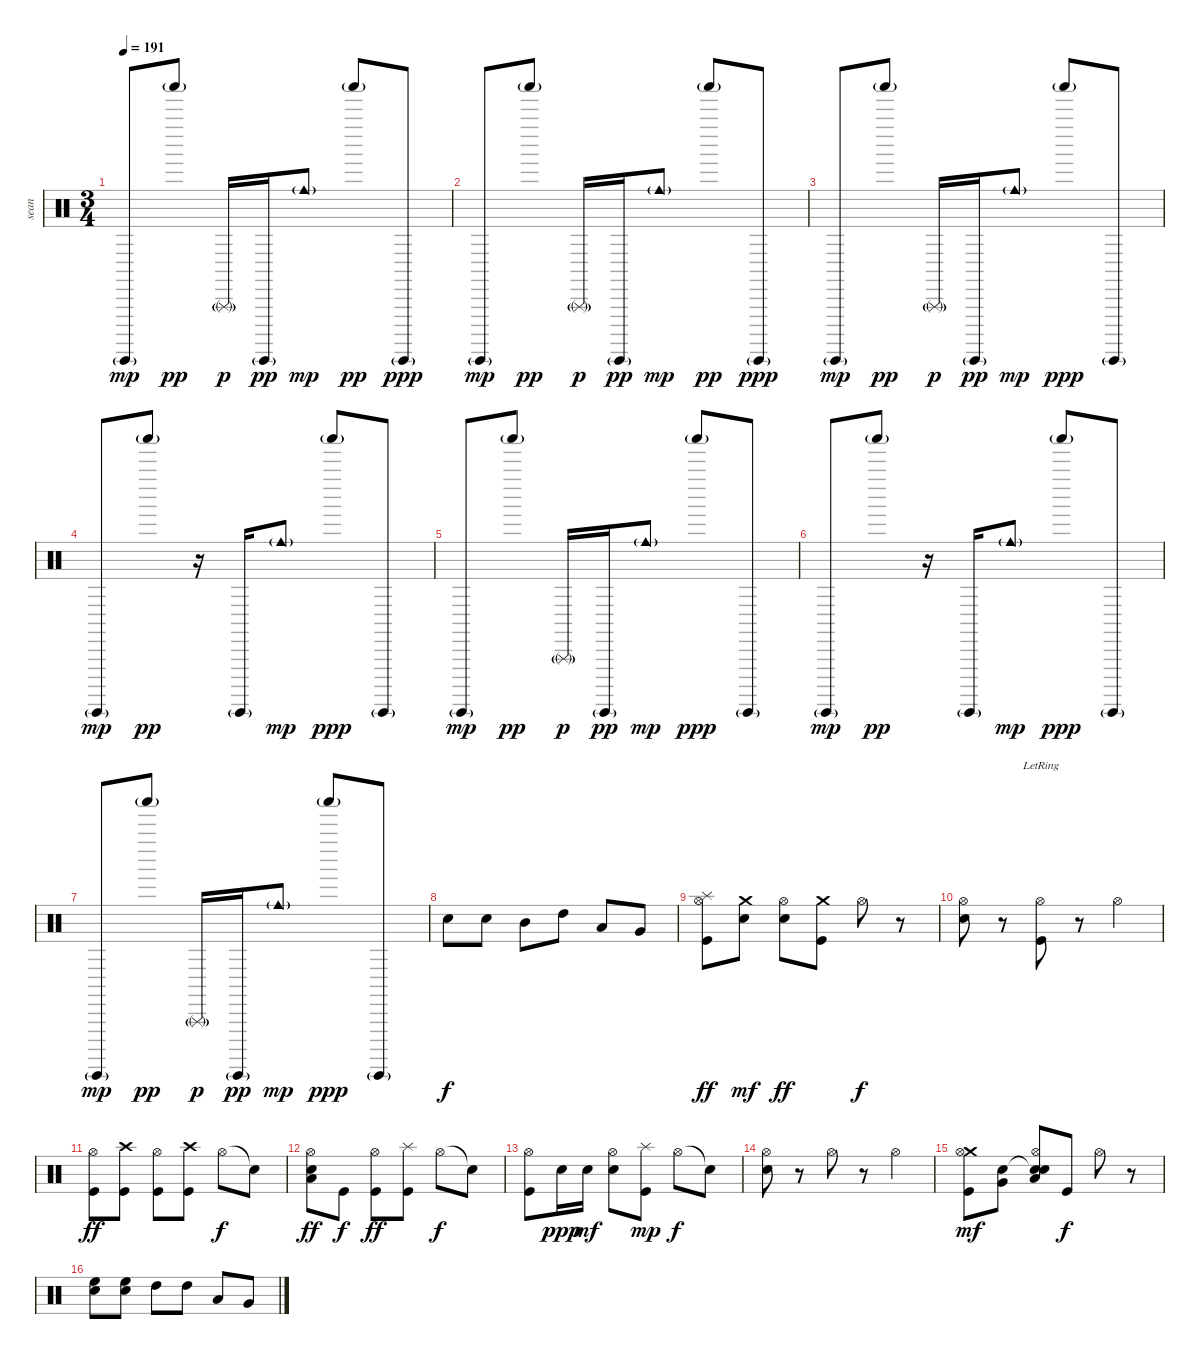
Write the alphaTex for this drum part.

\track ("sean" "sean") {instrument percussion}
\staff {score}
\articulation defaults
\ts (3 4)
\tempo 191
\clef neutral
\ks c "Guiro (hit)"{g}.8{dy mp} "Shaker (hit)"{g}.8{dy pp} "Triangle (rnute)"{g}.16{dy p} "Guiro (hit)"{g}.16{dy pp} "Cowbell medium (hit)"{g}.8{dy mp} "Shaker (hit)"{g}.8{dy pp} "Guiro (hit)"{g}.8{dy ppp}
|
"Guiro (hit)"{g}.8{dy mp} "Shaker (hit)"{g}.8{dy pp} "Triangle (rnute)"{g}.16{dy p} "Guiro (hit)"{g}.16{dy pp} "Cowbell medium (hit)"{g}.8{dy mp} "Shaker (hit)"{g}.8{dy pp} "Guiro (hit)"{g}.8{dy ppp} |
"Guiro (hit)"{g}.8{dy mp} "Shaker (hit)"{g}.8{dy pp} "Triangle (rnute)"{g}.16{dy p} "Guiro (hit)"{g}.16{dy pp} "Cowbell medium (hit)"{g}.8{dy mp} "Shaker (hit)"{g}.8{dy ppp} "Guiro (hit)"{g}.8 |
"Guiro (hit)"{g}.8{dy mp} "Shaker (hit)"{g}.8{dy pp} r.16 "Guiro (hit)"{g}.16 "Cowbell medium (hit)"{g}.8{dy mp} "Shaker (hit)"{g}.8{dy ppp} "Guiro (hit)"{g}.8 |
"Guiro (hit)"{g}.8{dy mp} "Shaker (hit)"{g}.8{dy pp} "Triangle (rnute)"{g}.16{dy p} "Guiro (hit)"{g}.16{dy pp} "Cowbell medium (hit)"{g}.8{dy mp} "Shaker (hit)"{g}.8{dy ppp} "Guiro (hit)"{g}.8 |
"Guiro (hit)"{g}.8{dy mp} "Shaker (hit)"{g}.8{dy pp} r.16 "Guiro (hit)"{g}.16 "Cowbell medium (hit)"{g}.8{dy mp} "Shaker (hit)"{g}.8{dy ppp} "Guiro (hit)"{g}.8 |
"Guiro (hit)"{g}.8{dy mp} "Shaker (hit)"{g}.8{dy pp} "Triangle (rnute)"{g}.16{dy p} "Guiro (hit)"{g}.16{dy pp} "Cowbell medium (hit)"{g}.8{dy mp} "Shaker (hit)"{g}.8{dy ppp} "Guiro (hit)"{g}.8 |
"Electric Snare (hit)".8{dy f} "Electric Snare (hit)".8 "Mid Tom (hit)".8 "High Tom (hit)".8 "Low Tom (hit)".8 "Very Low Tom (hit)".8 |
("Splash (hit)" "Hi-Hat (open)" "Kick (hit)").8{dy ff} ("Electric Snare (hit)" "Crash medium (hit)").8{dy mf} ("Hi-Hat (open)" "Electric Snare (hit)").8{dy ff} ("Crash medium (hit)" "Kick (hit)").8 "Hi-Hat (open)".8{dy f} r.8 |
("Hi-Hat (open)" "Electric Snare (hit)").8 r.8 ("Hi-Hat (open)" "Kick (hit)"{lr}).8 r.8 "Hi-Hat (open)".4 |
("Hi-Hat (open)" "Kick (hit)").8{dy ff} ("Crash high (hit)" "Kick (hit)").8 ("Hi-Hat (open)" "Kick (hit)").8 ("Crash high (hit)" "Kick (hit)").8 "Hi-Hat (open)".8{dy f} "Snare (hit)"{t}.8 |
("Low Tom (hit)" "Hi-Hat (open)" "Electric Snare (hit)").8{dy ff} "Kick (hit)".8{dy f} ("Hi-Hat (open)" "Kick (hit)").8{dy ff} ("Splash (hit)" "Kick (hit)").8 "Hi-Hat (open)".8{dy f} "Snare (hit)"{t}.8 |
("Hi-Hat (open)" "Kick (hit)").8 "Electric Snare (hit)".16{dy ppp} "Electric Snare (hit)".16{dy mf} ("Hi-Hat (open)" "Electric Snare (hit)").8 ("Splash (hit)" "Kick (hit)").8{dy mp} "Hi-Hat (open)".8{dy f} "Snare (hit)"{t}.8 |
("Hi-Hat (open)" "Electric Snare (hit)").8 r.8 "Hi-Hat (open)".8 r.8 "Hi-Hat (open)".4 |
("Crash medium (hit)" "Hi-Hat (open)" "Kick (hit)").8{dy mf} ("Electric Snare (hit)" "Very Low Tom (hit)").8 ("Snare (hit)"{t} "Hi-Hat (open)" "Electric Snare (hit)" "Low Floor Tom (hit)").8 "Kick (hit)".8{dy f} "Hi-Hat (open)".8 r.8 |
("Electric Snare (hit)" "High Floor Tom (hit)").8 ("Electric Snare (hit)" "High Floor Tom (hit)").8 "High Tom (hit)".8 "High Tom (hit)".8 "Low Tom (hit)".8 "Very Low Tom (hit)".8
